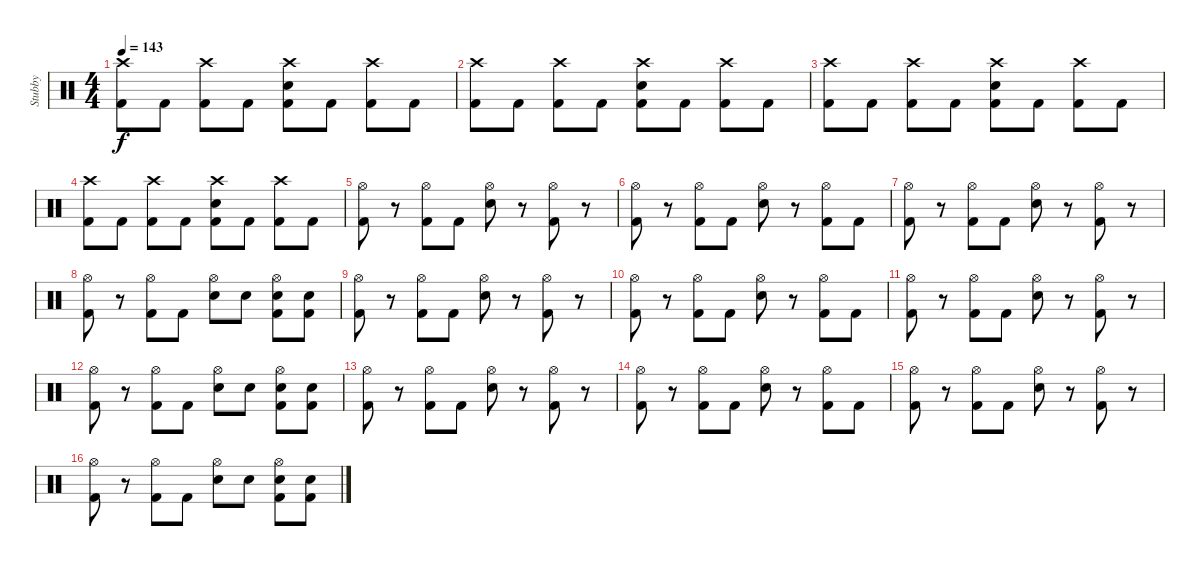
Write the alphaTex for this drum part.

\track ("Stubby" "Stubby") {instrument percussion}
\staff {score}
\articulation defaults
\ts (4 4)
\tempo 143
\clef neutral
\ks c
("Crash high (hit)" "Kick (hit) 2").8{dy f} "Kick (hit) 2".8 ("Crash high (hit)" "Kick (hit) 2").8 "Kick (hit) 2".8 ("Crash high (hit)" "Electric Snare (hit)" "Kick (hit) 2").8 "Kick (hit) 2".8 ("Crash high (hit)" "Kick (hit) 2").8 "Kick (hit) 2".8 |
("Crash high (hit)" "Kick (hit) 2").8 "Kick (hit) 2".8 ("Crash high (hit)" "Kick (hit) 2").8 "Kick (hit) 2".8 ("Crash high (hit)" "Electric Snare (hit)" "Kick (hit) 2").8 "Kick (hit) 2".8 ("Crash high (hit)" "Kick (hit) 2").8 "Kick (hit) 2".8 |
("Crash high (hit)" "Kick (hit) 2").8 "Kick (hit) 2".8 ("Crash high (hit)" "Kick (hit) 2").8 "Kick (hit) 2".8 ("Crash high (hit)" "Electric Snare (hit)" "Kick (hit) 2").8 "Kick (hit) 2".8 ("Crash high (hit)" "Kick (hit) 2").8 "Kick (hit) 2".8 |
("Crash high (hit)" "Kick (hit) 2").8 "Kick (hit) 2".8 ("Crash high (hit)" "Kick (hit) 2").8 "Kick (hit) 2".8 ("Crash high (hit)" "Electric Snare (hit)" "Kick (hit) 2").8 "Kick (hit) 2".8 ("Crash high (hit)" "Kick (hit) 2").8 "Kick (hit) 2".8 |
("Hi-Hat (open)" "Kick (hit) 2").8 r.8 ("Hi-Hat (open)" "Kick (hit) 2").8 "Kick (hit) 2".8 ("Hi-Hat (open)" "Electric Snare (hit)").8 r.8 ("Hi-Hat (open)" "Kick (hit) 2").8 r.8 |
("Hi-Hat (open)" "Kick (hit) 2").8 r.8 ("Hi-Hat (open)" "Kick (hit) 2").8 "Kick (hit) 2".8 ("Hi-Hat (open)" "Electric Snare (hit)").8 r.8 ("Hi-Hat (open)" "Kick (hit) 2").8 "Kick (hit) 2".8 |
("Hi-Hat (open)" "Kick (hit) 2").8 r.8 ("Hi-Hat (open)" "Kick (hit) 2").8 "Kick (hit) 2".8 ("Hi-Hat (open)" "Electric Snare (hit)").8 r.8 ("Hi-Hat (open)" "Kick (hit) 2").8 r.8 |
("Hi-Hat (open)" "Kick (hit) 2").8 r.8 ("Hi-Hat (open)" "Kick (hit) 2").8 "Kick (hit) 2".8 ("Hi-Hat (open)" "Electric Snare (hit)").8 "Electric Snare (hit)".8 ("Hi-Hat (open)" "Electric Snare (hit)" "Kick (hit) 2").8 ("Electric Snare (hit)" "Kick (hit) 2").8 |
("Hi-Hat (open)" "Kick (hit) 2").8 r.8 ("Hi-Hat (open)" "Kick (hit) 2").8 "Kick (hit) 2".8 ("Hi-Hat (open)" "Electric Snare (hit)").8 r.8 ("Hi-Hat (open)" "Kick (hit) 2").8 r.8 |
("Hi-Hat (open)" "Kick (hit) 2").8 r.8 ("Hi-Hat (open)" "Kick (hit) 2").8 "Kick (hit) 2".8 ("Hi-Hat (open)" "Electric Snare (hit)").8 r.8 ("Hi-Hat (open)" "Kick (hit) 2").8 "Kick (hit) 2".8 |
("Hi-Hat (open)" "Kick (hit) 2").8 r.8 ("Hi-Hat (open)" "Kick (hit) 2").8 "Kick (hit) 2".8 ("Hi-Hat (open)" "Electric Snare (hit)").8 r.8 ("Hi-Hat (open)" "Kick (hit) 2").8 r.8 |
("Hi-Hat (open)" "Kick (hit) 2").8 r.8 ("Hi-Hat (open)" "Kick (hit) 2").8 "Kick (hit) 2".8 ("Hi-Hat (open)" "Electric Snare (hit)").8 "Electric Snare (hit)".8 ("Hi-Hat (open)" "Electric Snare (hit)" "Kick (hit) 2").8 ("Electric Snare (hit)" "Kick (hit) 2").8 |
("Hi-Hat (open)" "Kick (hit) 2").8 r.8 ("Hi-Hat (open)" "Kick (hit) 2").8 "Kick (hit) 2".8 ("Hi-Hat (open)" "Electric Snare (hit)").8 r.8 ("Hi-Hat (open)" "Kick (hit) 2").8 r.8 |
("Hi-Hat (open)" "Kick (hit) 2").8 r.8 ("Hi-Hat (open)" "Kick (hit) 2").8 "Kick (hit) 2".8 ("Hi-Hat (open)" "Electric Snare (hit)").8 r.8 ("Hi-Hat (open)" "Kick (hit) 2").8 "Kick (hit) 2".8 |
("Hi-Hat (open)" "Kick (hit) 2").8 r.8 ("Hi-Hat (open)" "Kick (hit) 2").8 "Kick (hit) 2".8 ("Hi-Hat (open)" "Electric Snare (hit)").8 r.8 ("Hi-Hat (open)" "Kick (hit) 2").8 r.8 |
("Hi-Hat (open)" "Kick (hit) 2").8 r.8 ("Hi-Hat (open)" "Kick (hit) 2").8 "Kick (hit) 2".8 ("Hi-Hat (open)" "Electric Snare (hit)").8 "Electric Snare (hit)".8 ("Hi-Hat (open)" "Electric Snare (hit)" "Kick (hit) 2").8 ("Electric Snare (hit)" "Kick (hit) 2").8
